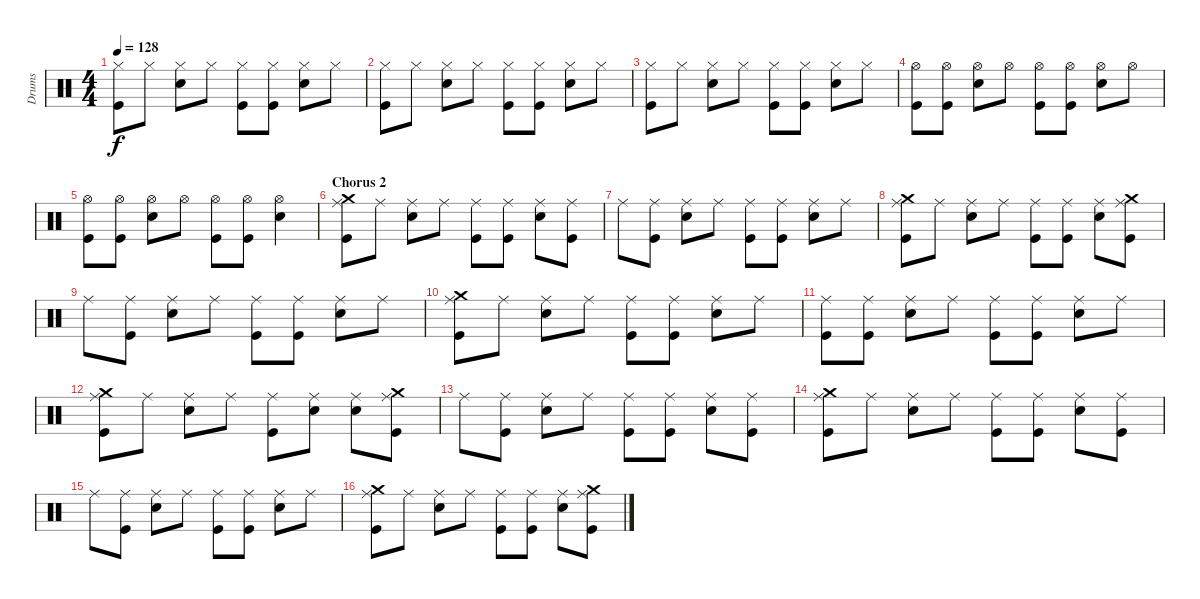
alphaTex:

\track ("Drums" "Drums") {instrument percussion}
\staff {score}
\articulation defaults
\ts (4 4)
\tempo 128
\clef neutral
\ks c
("Hi-Hat (closed)" "Kick (hit)").8{dy f} "Hi-Hat (closed)".8 ("Hi-Hat (closed)" "Snare (hit) 2").8 "Hi-Hat (closed)".8 ("Hi-Hat (closed)" "Kick (hit)").8 ("Hi-Hat (closed)" "Kick (hit)").8 ("Hi-Hat (closed)" "Snare (hit) 2").8 "Hi-Hat (closed)".8 |
("Hi-Hat (closed)" "Kick (hit)").8 "Hi-Hat (closed)".8 ("Hi-Hat (closed)" "Snare (hit) 2").8 "Hi-Hat (closed)".8 ("Hi-Hat (closed)" "Kick (hit)").8 ("Hi-Hat (closed)" "Kick (hit)").8 ("Hi-Hat (closed)" "Snare (hit) 2").8 "Hi-Hat (closed)".8 |
("Hi-Hat (closed)" "Kick (hit)").8 "Hi-Hat (closed)".8 ("Hi-Hat (closed)" "Snare (hit) 2").8 "Hi-Hat (closed)".8 ("Hi-Hat (closed)" "Kick (hit)").8 ("Hi-Hat (closed)" "Kick (hit)").8 ("Hi-Hat (closed)" "Snare (hit) 2").8 "Hi-Hat (closed)".8 |
("Hi-Hat (open)" "Kick (hit)").8 ("Hi-Hat (open)" "Kick (hit)").8 ("Hi-Hat (open)" "Snare (hit) 2").8 "Hi-Hat (open)".8 ("Hi-Hat (open)" "Kick (hit)").8 ("Hi-Hat (open)" "Kick (hit)").8 ("Hi-Hat (open)" "Snare (hit) 2").8 "Hi-Hat (open)".8 |
("Hi-Hat (open)" "Kick (hit)").8 ("Hi-Hat (open)" "Kick (hit)").8 ("Hi-Hat (open)" "Snare (hit) 2").8 "Hi-Hat (open)".8 ("Hi-Hat (open)" "Kick (hit)").8 ("Hi-Hat (open)" "Kick (hit)").8 ("Hi-Hat (open)" "Snare (hit) 2").4 |
\section ("" "Chorus 2")
("Ride (middle)" "Crash medium (hit)" "Kick (hit)").8 "Ride (middle)".8 ("Ride (middle)" "Snare (hit) 2").8 "Ride (middle)".8 ("Ride (middle)" "Kick (hit)").8 ("Ride (middle)" "Kick (hit)").8 ("Ride (middle)" "Snare (hit) 2").8 ("Ride (middle)" "Kick (hit)").8 |
"Ride (middle)".8 ("Ride (middle)" "Kick (hit)").8 ("Ride (middle)" "Snare (hit) 2").8 "Ride (middle)".8 ("Ride (middle)" "Kick (hit)").8 ("Ride (middle)" "Kick (hit)").8 ("Ride (middle)" "Snare (hit) 2").8 "Ride (middle)".8 |
("Ride (middle)" "Crash medium (hit)" "Kick (hit)").8 "Ride (middle)".8 ("Ride (middle)" "Snare (hit) 2").8 "Ride (middle)".8 ("Ride (middle)" "Kick (hit)").8 ("Ride (middle)" "Kick (hit)").8 ("Ride (middle)" "Snare (hit) 2").8 ("Ride (middle)" "Crash medium (hit)" "Kick (hit)").8 |
"Ride (middle)".8 ("Ride (middle)" "Kick (hit)").8 ("Ride (middle)" "Snare (hit) 2").8 "Ride (middle)".8 ("Ride (middle)" "Kick (hit)").8 ("Ride (middle)" "Kick (hit)").8 ("Ride (middle)" "Snare (hit) 2").8 "Ride (middle)".8 |
("Ride (middle)" "Crash medium (hit)" "Kick (hit)").8 "Ride (middle)".8 ("Ride (middle)" "Snare (hit) 2").8 "Ride (middle)".8 ("Ride (middle)" "Kick (hit)").8 ("Ride (middle)" "Kick (hit)").8 ("Ride (middle)" "Snare (hit) 2").8 "Ride (middle)".8 |
("Ride (middle)" "Kick (hit)").8 ("Ride (middle)" "Kick (hit)").8 ("Ride (middle)" "Snare (hit) 2").8 "Ride (middle)".8 ("Ride (middle)" "Kick (hit)").8 ("Ride (middle)" "Kick (hit)").8 ("Ride (middle)" "Snare (hit) 2").8 "Ride (middle)".8 |
("Ride (middle)" "Crash medium (hit)" "Kick (hit)").8 "Ride (middle)".8 ("Ride (middle)" "Snare (hit) 2").8 "Ride (middle)".8 ("Ride (middle)" "Kick (hit)").8 ("Ride (middle)" "Snare (hit) 2").8 ("Ride (middle)" "Snare (hit) 2").8 ("Ride (middle)" "Crash medium (hit)" "Kick (hit)").8 |
"Ride (middle)".8 ("Ride (middle)" "Kick (hit)").8 ("Ride (middle)" "Snare (hit) 2").8 "Ride (middle)".8 ("Ride (middle)" "Kick (hit)").8 ("Ride (middle)" "Kick (hit)").8 ("Ride (middle)" "Snare (hit) 2").8 ("Ride (middle)" "Kick (hit)").8 |
("Ride (middle)" "Crash medium (hit)" "Kick (hit)").8 "Ride (middle)".8 ("Ride (middle)" "Snare (hit) 2").8 "Ride (middle)".8 ("Ride (middle)" "Kick (hit)").8 ("Ride (middle)" "Kick (hit)").8 ("Ride (middle)" "Snare (hit) 2").8 ("Ride (middle)" "Kick (hit)").8 |
"Ride (middle)".8 ("Ride (middle)" "Kick (hit)").8 ("Ride (middle)" "Snare (hit) 2").8 "Ride (middle)".8 ("Ride (middle)" "Kick (hit)").8 ("Ride (middle)" "Kick (hit)").8 ("Ride (middle)" "Snare (hit) 2").8 "Ride (middle)".8 |
("Ride (middle)" "Crash medium (hit)" "Kick (hit)").8 "Ride (middle)".8 ("Ride (middle)" "Snare (hit) 2").8 "Ride (middle)".8 ("Ride (middle)" "Kick (hit)").8 ("Ride (middle)" "Kick (hit)").8 ("Ride (middle)" "Snare (hit) 2").8 ("Ride (middle)" "Crash medium (hit)" "Kick (hit)").8
